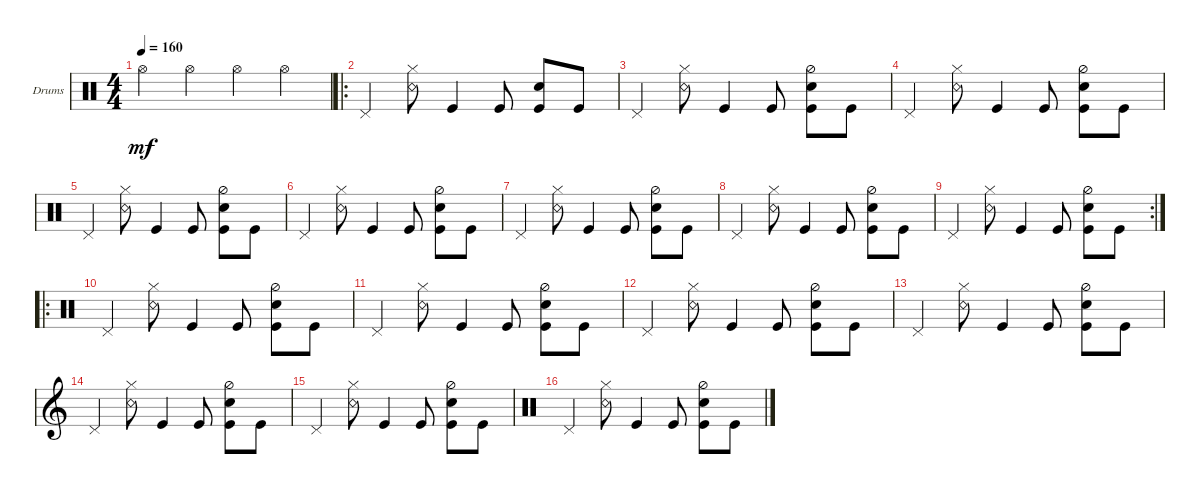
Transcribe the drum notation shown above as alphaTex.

\defaultSystemsLayout 4
\bracketExtendMode groupsimilarinstruments
\firstSystemTrackNameOrientation horizontal
\otherSystemsTrackNameOrientation horizontal
\track ("Drumkit" "Drums") {instrument percussion}
\staff {score}
\articulation defaults
\ts (4 4)
\tempo 160
\clef neutral
\ks c "Hi-Hat (open)".4{dy mf} "Hi-Hat (open)".4 "Hi-Hat (open)".4 "Hi-Hat (open)".4
|
\ro "Pedal Hi-Hat (hit)".4
("Hi-Hat (closed)" "Snare (rim shot)").8 "Kick (hit)".4 "Kick (hit)".8 ("Kick (hit)" "Snare (hit) 2").8 "Kick (hit)".8 |
"Pedal Hi-Hat (hit)".4 ("Hi-Hat (closed)" "Snare (rim shot)").8 "Kick (hit)".4 "Kick (hit)".8 ("Kick (hit)" "Snare (hit) 2" "Hi-Hat (half)").8 "Kick (hit)".8 |
"Pedal Hi-Hat (hit)".4 ("Hi-Hat (closed)" "Snare (rim shot)").8 "Kick (hit)".4 "Kick (hit)".8 ("Kick (hit)" "Snare (hit) 2" "Hi-Hat (half)").8 "Kick (hit)".8 |
"Pedal Hi-Hat (hit)".4 ("Hi-Hat (closed)" "Snare (rim shot)").8 "Kick (hit)".4 "Kick (hit)".8 ("Kick (hit)" "Snare (hit) 2" "Hi-Hat (half)").8 "Kick (hit)".8 |
"Pedal Hi-Hat (hit)".4 ("Hi-Hat (closed)" "Snare (rim shot)").8 "Kick (hit)".4 "Kick (hit)".8 ("Kick (hit)" "Snare (hit) 2" "Hi-Hat (half)").8 "Kick (hit)".8 |
"Pedal Hi-Hat (hit)".4 ("Hi-Hat (closed)" "Snare (rim shot)").8 "Kick (hit)".4 "Kick (hit)".8 ("Kick (hit)" "Snare (hit) 2" "Hi-Hat (half)").8 "Kick (hit)".8 |
"Pedal Hi-Hat (hit)".4 ("Hi-Hat (closed)" "Snare (rim shot)").8 "Kick (hit)".4 "Kick (hit)".8 ("Kick (hit)" "Snare (hit) 2" "Hi-Hat (half)").8 "Kick (hit)".8 |
\rc 2 "Pedal Hi-Hat (hit)".4
("Hi-Hat (closed)" "Snare (rim shot)").8 "Kick (hit)".4 "Kick (hit)".8 ("Kick (hit)" "Snare (hit) 2" "Hi-Hat (half)").8 "Kick (hit)".8 |
\ro "Pedal Hi-Hat (hit)".4
("Hi-Hat (closed)" "Snare (rim shot)").8 "Kick (hit)".4 "Kick (hit)".8 ("Kick (hit)" "Snare (hit) 2" "Hi-Hat (half)").8 "Kick (hit)".8 |
"Pedal Hi-Hat (hit)".4 ("Hi-Hat (closed)" "Snare (rim shot)").8 "Kick (hit)".4 "Kick (hit)".8 ("Kick (hit)" "Snare (hit) 2" "Hi-Hat (half)").8 "Kick (hit)".8 |
"Pedal Hi-Hat (hit)".4 ("Hi-Hat (closed)" "Snare (rim shot)").8 "Kick (hit)".4 "Kick (hit)".8 ("Kick (hit)" "Snare (hit) 2" "Hi-Hat (half)").8 "Kick (hit)".8 |
"Pedal Hi-Hat (hit)".4 ("Hi-Hat (closed)" "Snare (rim shot)").8 "Kick (hit)".4 "Kick (hit)".8 ("Kick (hit)" "Snare (hit) 2" "Hi-Hat (half)").8 "Kick (hit)".8 |
\clef g2 "Pedal Hi-Hat (hit)".4
("Hi-Hat (closed)" "Snare (rim shot)").8 "Kick (hit)".4 "Kick (hit)".8 ("Kick (hit)" "Snare (hit) 2" "Hi-Hat (half)").8 "Kick (hit)".8 |
"Pedal Hi-Hat (hit)".4 ("Hi-Hat (closed)" "Snare (rim shot)").8 "Kick (hit)".4 "Kick (hit)".8 ("Kick (hit)" "Snare (hit) 2" "Hi-Hat (half)").8 "Kick (hit)".8 |
\clef neutral "Pedal Hi-Hat (hit)".4
("Hi-Hat (closed)" "Snare (rim shot)").8 "Kick (hit)".4 "Kick (hit)".8 ("Kick (hit)" "Snare (hit) 2" "Hi-Hat (half)").8 "Kick (hit)".8
